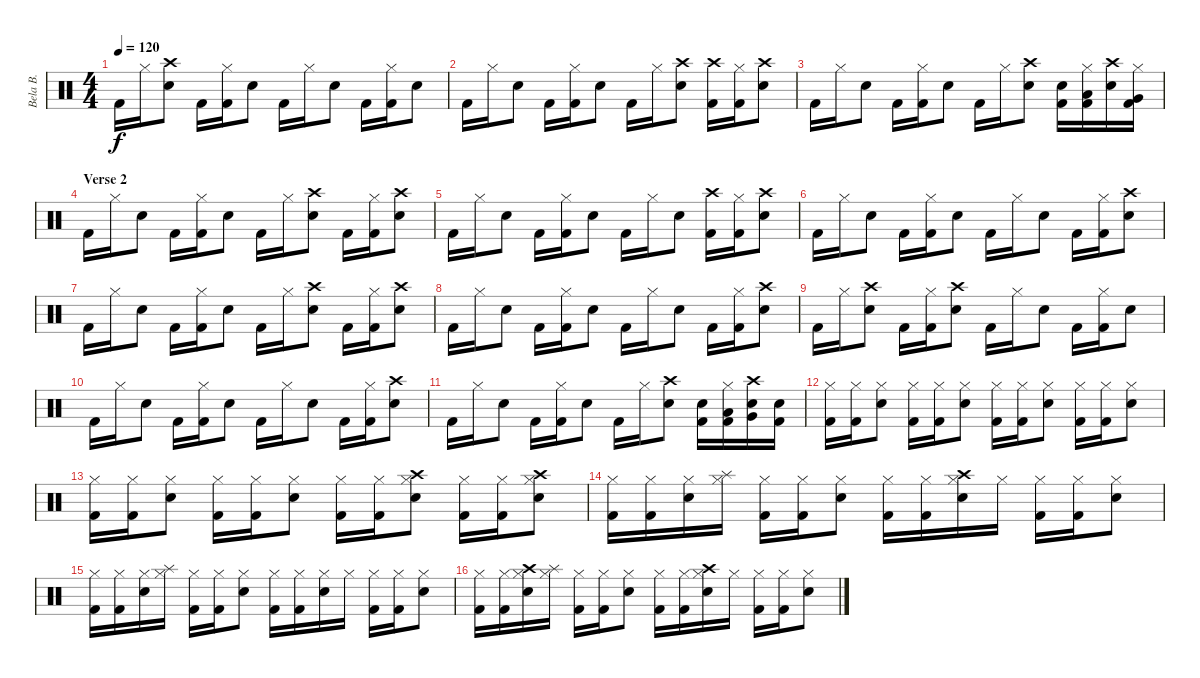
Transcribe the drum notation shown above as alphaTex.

\track ("Bela B." "Bela B.") {instrument percussion}
\staff {score}
\articulation defaults
\ts (4 4)
\tempo 120
\clef neutral
\ks c "Kick (hit) 2".16{dy f} "Hi-Hat (closed)".16
("Crash high (hit)" "Electric Snare (hit)").8 "Kick (hit) 2".16 ("Hi-Hat (closed)" "Kick (hit) 2").16 "Electric Snare (hit)".8 "Kick (hit) 2".16 "Hi-Hat (closed)".16 "Electric Snare (hit)".8 "Kick (hit) 2".16 ("Hi-Hat (closed)" "Kick (hit) 2").16 "Electric Snare (hit)".8 |
"Kick (hit) 2".16 "Hi-Hat (closed)".16 "Electric Snare (hit)".8 "Kick (hit) 2".16 ("Hi-Hat (closed)" "Kick (hit) 2").16 "Electric Snare (hit)".8 "Kick (hit) 2".16 "Hi-Hat (closed)".16 ("Crash high (hit)" "Electric Snare (hit)").8 ("Crash high (hit)" "Kick (hit) 2").16 ("Hi-Hat (closed)" "Kick (hit) 2").16 ("Crash high (hit)" "Electric Snare (hit)").8 |
"Kick (hit) 2".16 "Hi-Hat (closed)".16 "Electric Snare (hit)".8 "Kick (hit) 2".16 ("Hi-Hat (closed)" "Kick (hit) 2").16 "Electric Snare (hit)".8 "Kick (hit) 2".16 "Hi-Hat (closed)".16 ("Crash high (hit)" "Electric Snare (hit)").8 ("Electric Snare (hit)" "Kick (hit) 2").16 ("Hi-Hat (closed)" "Low Floor Tom (hit)" "Kick (hit) 2").16 ("Crash high (hit)" "Electric Snare (hit)").16 ("Hi-Hat (closed)" "Very Low Tom (hit)" "Kick (hit) 2").16 |
\section ("" "Verse 2")
"Kick (hit) 2".16 "Hi-Hat (closed)".16 "Electric Snare (hit)".8 "Kick (hit) 2".16 ("Hi-Hat (closed)" "Kick (hit) 2").16 "Electric Snare (hit)".8 "Kick (hit) 2".16 "Hi-Hat (closed)".16 ("Crash high (hit)" "Electric Snare (hit)").8 "Kick (hit) 2".16 ("Hi-Hat (closed)" "Kick (hit) 2").16 ("Crash high (hit)" "Electric Snare (hit)").8 |
"Kick (hit) 2".16 "Hi-Hat (closed)".16 "Electric Snare (hit)".8 "Kick (hit) 2".16 ("Hi-Hat (closed)" "Kick (hit) 2").16 "Electric Snare (hit)".8 "Kick (hit) 2".16 "Hi-Hat (closed)".16 "Electric Snare (hit)".8 ("Crash high (hit)" "Kick (hit) 2").16 ("Hi-Hat (closed)" "Kick (hit) 2").16 ("Crash high (hit)" "Electric Snare (hit)").8 |
"Kick (hit) 2".16 "Hi-Hat (closed)".16 "Electric Snare (hit)".8 "Kick (hit) 2".16 ("Hi-Hat (closed)" "Kick (hit) 2").16 "Electric Snare (hit)".8 "Kick (hit) 2".16 "Hi-Hat (closed)".16 "Electric Snare (hit)".8 "Kick (hit) 2".16 ("Hi-Hat (closed)" "Kick (hit) 2").16 ("Crash high (hit)" "Electric Snare (hit)").8 |
"Kick (hit) 2".16 "Hi-Hat (closed)".16 "Electric Snare (hit)".8 "Kick (hit) 2".16 ("Hi-Hat (closed)" "Kick (hit) 2").16 "Electric Snare (hit)".8 "Kick (hit) 2".16 "Hi-Hat (closed)".16 ("Crash high (hit)" "Electric Snare (hit)").8 "Kick (hit) 2".16 ("Hi-Hat (closed)" "Kick (hit) 2").16 ("Crash high (hit)" "Electric Snare (hit)").8 |
"Kick (hit) 2".16 "Hi-Hat (closed)".16 "Electric Snare (hit)".8 "Kick (hit) 2".16 ("Hi-Hat (closed)" "Kick (hit) 2").16 "Electric Snare (hit)".8 "Kick (hit) 2".16 "Hi-Hat (closed)".16 "Electric Snare (hit)".8 "Kick (hit) 2".16 ("Hi-Hat (closed)" "Kick (hit) 2").16 ("Crash high (hit)" "Electric Snare (hit)").8 |
"Kick (hit) 2".16 "Hi-Hat (closed)".16 ("Crash high (hit)" "Electric Snare (hit)").8 "Kick (hit) 2".16 ("Hi-Hat (closed)" "Kick (hit) 2").16 ("Crash high (hit)" "Electric Snare (hit)").8 "Kick (hit) 2".16 "Hi-Hat (closed)".16 "Electric Snare (hit)".8 "Kick (hit) 2".16 ("Hi-Hat (closed)" "Kick (hit) 2").16 "Electric Snare (hit)".8 |
"Kick (hit) 2".16 "Hi-Hat (closed)".16 "Electric Snare (hit)".8 "Kick (hit) 2".16 ("Hi-Hat (closed)" "Kick (hit) 2").16 "Electric Snare (hit)".8 "Kick (hit) 2".16 "Hi-Hat (closed)".16 "Electric Snare (hit)".8 "Kick (hit) 2".16 ("Hi-Hat (closed)" "Kick (hit) 2").16 ("Crash high (hit)" "Electric Snare (hit)").8 |
"Kick (hit) 2".16 "Hi-Hat (closed)".16 "Electric Snare (hit)".8 "Kick (hit) 2".16 ("Hi-Hat (closed)" "Kick (hit) 2").16 "Electric Snare (hit)".8 "Kick (hit) 2".16 "Hi-Hat (closed)".16 ("Crash high (hit)" "Electric Snare (hit)").8 ("Electric Snare (hit)" "Kick (hit) 2").16 ("Hi-Hat (closed)" "Low Floor Tom (hit)" "Kick (hit) 2").16 ("Crash high (hit)" "Electric Snare (hit)" "Very Low Tom (hit)").16 ("Electric Snare (hit)" "Kick (hit) 2").16 |
("Hi-Hat (closed)" "Kick (hit) 2").16 ("Hi-Hat (closed)" "Kick (hit) 2").16 ("Hi-Hat (closed)" "Electric Snare (hit)").8 ("Hi-Hat (closed)" "Kick (hit) 2").16 ("Hi-Hat (closed)" "Kick (hit) 2").16 ("Hi-Hat (closed)" "Electric Snare (hit)").8 ("Hi-Hat (closed)" "Kick (hit) 2").16 ("Hi-Hat (closed)" "Kick (hit) 2").16 ("Hi-Hat (closed)" "Electric Snare (hit)").8 ("Hi-Hat (closed)" "Kick (hit) 2").16 ("Hi-Hat (closed)" "Kick (hit) 2").16 ("Hi-Hat (closed)" "Electric Snare (hit)").8 |
("Hi-Hat (closed)" "Kick (hit) 2").16 ("Hi-Hat (closed)" "Kick (hit) 2").16 ("Hi-Hat (closed)" "Electric Snare (hit)").8 ("Hi-Hat (closed)" "Kick (hit) 2").16 ("Hi-Hat (closed)" "Kick (hit) 2").16 ("Hi-Hat (closed)" "Electric Snare (hit)").8 ("Hi-Hat (closed)" "Kick (hit) 2").16 ("Hi-Hat (closed)" "Kick (hit) 2").16 ("Hi-Hat (closed)" "Crash high (hit)" "Electric Snare (hit)").8 ("Hi-Hat (closed)" "Kick (hit) 2").16 ("Hi-Hat (closed)" "Kick (hit) 2").16 ("Hi-Hat (closed)" "Crash high (hit)" "Electric Snare (hit)").8 |
("Hi-Hat (closed)" "Kick (hit) 2").16 ("Hi-Hat (closed)" "Kick (hit) 2").16 ("Hi-Hat (closed)" "Electric Snare (hit)").16 ("Hi-Hat (closed)" "Splash (hit)").16 ("Hi-Hat (closed)" "Kick (hit) 2").16 ("Hi-Hat (closed)" "Kick (hit) 2").16 ("Hi-Hat (closed)" "Electric Snare (hit)").8 ("Hi-Hat (closed)" "Kick (hit) 2").16 ("Hi-Hat (closed)" "Kick (hit) 2").16 ("Hi-Hat (closed)" "Crash high (hit)" "Electric Snare (hit)").16 "Hi-Hat (closed)".16 ("Hi-Hat (closed)" "Kick (hit) 2").16 ("Hi-Hat (closed)" "Kick (hit) 2").16 ("Hi-Hat (closed)" "Electric Snare (hit)").8 |
("Hi-Hat (closed)" "Kick (hit) 2").16 ("Hi-Hat (closed)" "Kick (hit) 2").16 ("Hi-Hat (closed)" "Electric Snare (hit)").16 ("Hi-Hat (closed)" "Splash (hit)").16 ("Hi-Hat (closed)" "Kick (hit) 2").16 ("Hi-Hat (closed)" "Kick (hit) 2").16 ("Hi-Hat (closed)" "Electric Snare (hit)").8 ("Hi-Hat (closed)" "Kick (hit) 2").16 ("Hi-Hat (closed)" "Kick (hit) 2").16 ("Hi-Hat (closed)" "Electric Snare (hit)").16 "Hi-Hat (closed)".16 ("Hi-Hat (closed)" "Kick (hit) 2").16 ("Hi-Hat (closed)" "Kick (hit) 2").16 ("Hi-Hat (closed)" "Electric Snare (hit)").8 |
("Hi-Hat (closed)" "Kick (hit) 2").16 ("Hi-Hat (closed)" "Kick (hit) 2").16 ("Hi-Hat (closed)" "Crash high (hit)" "Electric Snare (hit)").16 ("Hi-Hat (closed)" "Splash (hit)").16 ("Hi-Hat (closed)" "Kick (hit) 2").16 ("Hi-Hat (closed)" "Kick (hit) 2").16 ("Hi-Hat (closed)" "Electric Snare (hit)").8 ("Hi-Hat (closed)" "Kick (hit) 2").16 ("Hi-Hat (closed)" "Kick (hit) 2").16 ("Hi-Hat (closed)" "Crash high (hit)" "Electric Snare (hit)").16 "Hi-Hat (closed)".16 ("Hi-Hat (closed)" "Kick (hit) 2").16 ("Hi-Hat (closed)" "Kick (hit) 2").16 ("Hi-Hat (closed)" "Electric Snare (hit)").8
